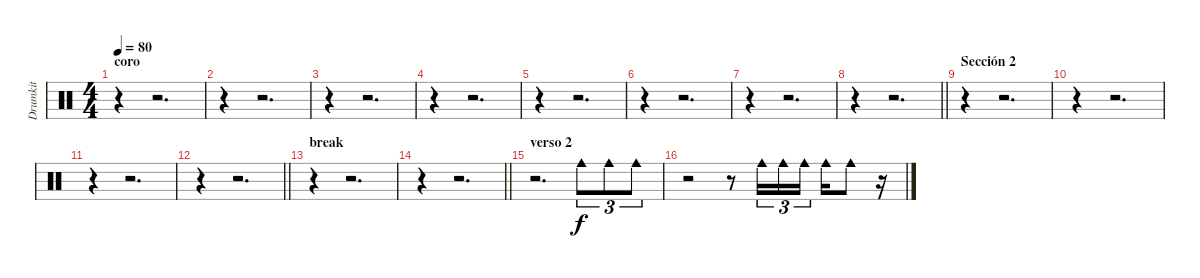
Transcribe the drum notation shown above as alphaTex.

\track ("Drumkit" "Drumkit") {instrument percussion}
\staff {score}
\articulation defaults
\ts (4 4)
\section ("" "coro")
\tempo 80
\clef neutral
\ks c
r.4{dy f} r.2{d} |
r.4 r.2{d} |
r.4 r.2{d} |
r.4 r.2{d} |
r.4 r.2{d} |
r.4 r.2{d} |
r.4 r.2{d} |
\barLineRight lightlight
r.4 r.2{d} |
\section ("" "Sección 2")
r.4 r.2{d} |
r.4 r.2{d} |
r.4 r.2{d} |
\barLineRight lightlight
r.4 r.2{d} |
\section ("" "break")
r.4 r.2{d} |
\barLineRight lightlight
r.4 r.2{d} |
\section ("" "verso 2")
r.2{d} "Cowbell medium (hit)".8{tu (3 2)} "Cowbell medium (hit)".8{tu (3 2)} "Cowbell medium (hit)".8{tu (3 2)} |
r.2 r.8 "Cowbell medium (hit)".16{tu (3 2)} "Cowbell medium (hit)".16{tu (3 2)} "Cowbell medium (hit)".16{tu (3 2)} "Cowbell medium (hit)".16 "Cowbell medium (hit)".8 r.16
